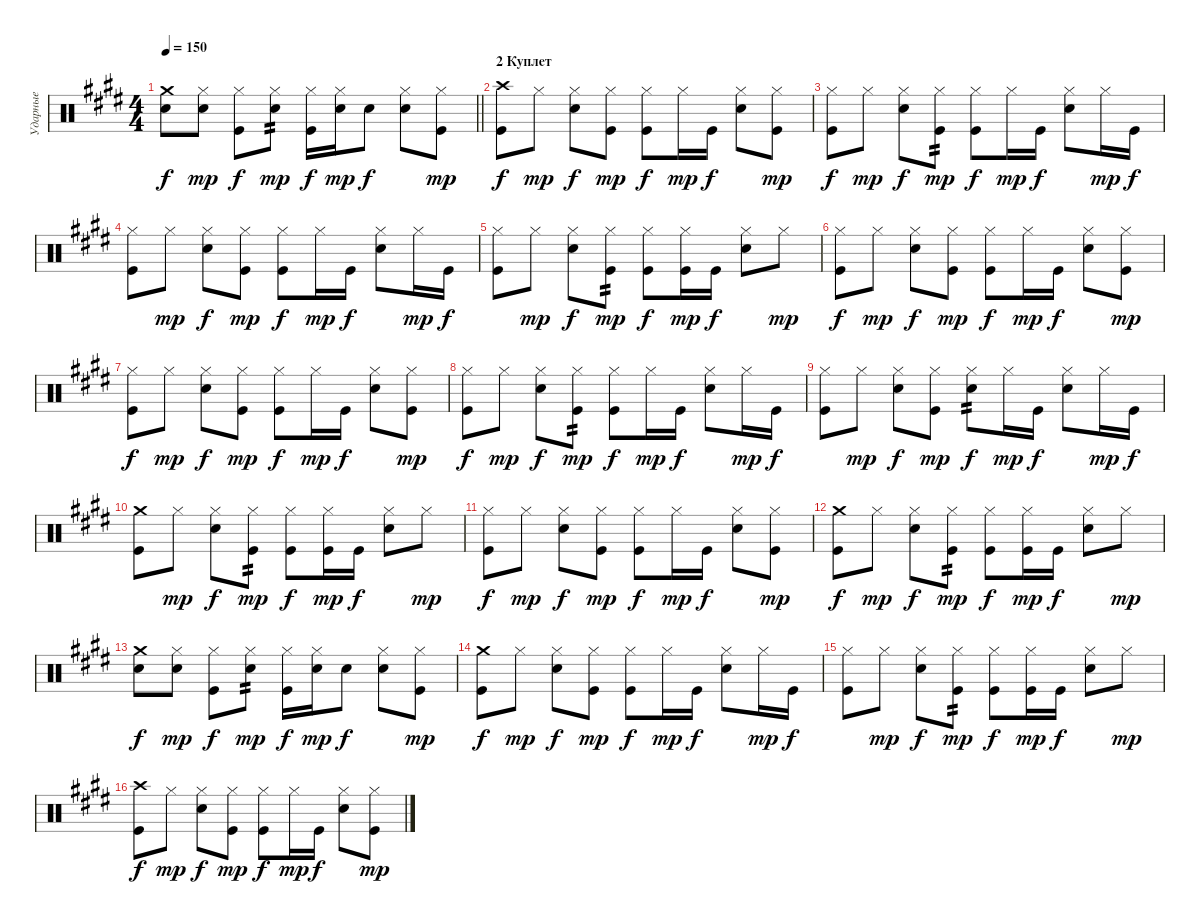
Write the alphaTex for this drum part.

\track ("Ударные" "Ударные") {instrument percussion}
\staff {score}
\articulation defaults
\ts (4 4)
\tempo 150
\clef neutral
\barLineRight lightlight
\ks c#minor
("Crash medium (hit)" "Snare (hit) 2").8{dy f} ("Hi-Hat (closed)" "Snare (hit) 2").8{dy mp} ("Hi-Hat (closed)" "Kick (hit)").8{dy f} ("Hi-Hat (closed)" "Snare (hit) 2").8{tp 2 dy mp} ("Hi-Hat (closed)" "Kick (hit)").16{dy f} ("Hi-Hat (closed)" "Snare (hit) 2").16{dy mp} "Snare (hit) 2".8{dy f} ("Hi-Hat (closed)" "Snare (hit) 2").8 ("Hi-Hat (closed)" "Kick (hit)").8{dy mp} |
\section ("" "2 Куплет")
("Crash high (hit)" "Kick (hit)").8{dy f} "Hi-Hat (closed)".8{dy mp} ("Hi-Hat (closed)" "Snare (hit) 2").8{dy f} ("Hi-Hat (closed)" "Kick (hit)").8{dy mp} ("Hi-Hat (closed)" "Kick (hit)").8{dy f} "Hi-Hat (closed)".16{dy mp} "Kick (hit)".16{dy f} ("Hi-Hat (closed)" "Snare (hit) 2").8 ("Hi-Hat (closed)" "Kick (hit)").8{dy mp} |
("Hi-Hat (closed)" "Kick (hit)").8{dy f} "Hi-Hat (closed)".8{dy mp} ("Hi-Hat (closed)" "Snare (hit) 2").8{dy f} ("Hi-Hat (closed)" "Kick (hit)").8{tp 2 dy mp} ("Hi-Hat (closed)" "Kick (hit)").8{dy f} "Hi-Hat (closed)".16{dy mp} "Kick (hit)".16{dy f} ("Hi-Hat (closed)" "Snare (hit) 2").8 "Hi-Hat (closed)".16{dy mp} "Kick (hit)".16{dy f} |
("Hi-Hat (closed)" "Kick (hit)").8 "Hi-Hat (closed)".8{dy mp} ("Hi-Hat (closed)" "Snare (hit) 2").8{dy f} ("Hi-Hat (closed)" "Kick (hit)").8{dy mp} ("Hi-Hat (closed)" "Kick (hit)").8{dy f} "Hi-Hat (closed)".16{dy mp} "Kick (hit)".16{dy f} ("Hi-Hat (closed)" "Snare (hit) 2").8 "Hi-Hat (closed)".16{dy mp} "Kick (hit)".16{dy f} |
("Hi-Hat (closed)" "Kick (hit)").8 "Hi-Hat (closed)".8{dy mp} ("Hi-Hat (closed)" "Snare (hit) 2").8{dy f} ("Hi-Hat (closed)" "Kick (hit)").8{tp 2 dy mp} ("Hi-Hat (closed)" "Kick (hit)").8{dy f} ("Hi-Hat (closed)" "Kick (hit)").16{dy mp} "Kick (hit)".16{dy f} ("Hi-Hat (closed)" "Snare (hit) 2").8 "Hi-Hat (closed)".8{dy mp} |
("Hi-Hat (closed)" "Kick (hit)").8{dy f} "Hi-Hat (closed)".8{dy mp} ("Hi-Hat (closed)" "Snare (hit) 2").8{dy f} ("Hi-Hat (closed)" "Kick (hit)").8{dy mp} ("Hi-Hat (closed)" "Kick (hit)").8{dy f} "Hi-Hat (closed)".16{dy mp} "Kick (hit)".16{dy f} ("Hi-Hat (closed)" "Snare (hit) 2").8 ("Hi-Hat (closed)" "Kick (hit)").8{dy mp} |
("Hi-Hat (closed)" "Kick (hit)").8{dy f} "Hi-Hat (closed)".8{dy mp} ("Hi-Hat (closed)" "Snare (hit) 2").8{dy f} ("Hi-Hat (closed)" "Kick (hit)").8{dy mp} ("Hi-Hat (closed)" "Kick (hit)").8{dy f} "Hi-Hat (closed)".16{dy mp} "Kick (hit)".16{dy f} ("Hi-Hat (closed)" "Snare (hit) 2").8 ("Hi-Hat (closed)" "Kick (hit)").8{dy mp} |
("Hi-Hat (closed)" "Kick (hit)").8{dy f} "Hi-Hat (closed)".8{dy mp} ("Hi-Hat (closed)" "Snare (hit) 2").8{dy f} ("Hi-Hat (closed)" "Kick (hit)").8{tp 2 dy mp} ("Hi-Hat (closed)" "Kick (hit)").8{dy f} "Hi-Hat (closed)".16{dy mp} "Kick (hit)".16{dy f} ("Hi-Hat (closed)" "Snare (hit) 2").8 "Hi-Hat (closed)".16{dy mp} "Kick (hit)".16{dy f} |
("Hi-Hat (closed)" "Kick (hit)").8 "Hi-Hat (closed)".8{dy mp} ("Hi-Hat (closed)" "Snare (hit) 2").8{dy f} ("Hi-Hat (closed)" "Kick (hit)").8{dy mp} ("Hi-Hat (closed)" "Snare (hit) 2").8{tp 2 dy f} "Hi-Hat (closed)".16{dy mp} "Kick (hit)".16{dy f} ("Hi-Hat (closed)" "Snare (hit) 2").8 "Hi-Hat (closed)".16{dy mp} "Kick (hit)".16{dy f} |
("Crash medium (hit)" "Kick (hit)").8 "Hi-Hat (closed)".8{dy mp} ("Hi-Hat (closed)" "Snare (hit) 2").8{dy f} ("Hi-Hat (closed)" "Kick (hit)").8{tp 2 dy mp} ("Hi-Hat (closed)" "Kick (hit)").8{dy f} ("Hi-Hat (closed)" "Kick (hit)").16{dy mp} "Kick (hit)".16{dy f} ("Hi-Hat (closed)" "Snare (hit) 2").8 "Hi-Hat (closed)".8{dy mp} |
("Hi-Hat (closed)" "Kick (hit)").8{dy f} "Hi-Hat (closed)".8{dy mp} ("Hi-Hat (closed)" "Snare (hit) 2").8{dy f} ("Hi-Hat (closed)" "Kick (hit)").8{dy mp} ("Hi-Hat (closed)" "Kick (hit)").8{dy f} "Hi-Hat (closed)".16{dy mp} "Kick (hit)".16{dy f} ("Hi-Hat (closed)" "Snare (hit) 2").8 ("Hi-Hat (closed)" "Kick (hit)").8{dy mp} |
("Crash medium (hit)" "Kick (hit)").8{dy f} "Hi-Hat (closed)".8{dy mp} ("Hi-Hat (closed)" "Snare (hit) 2").8{dy f} ("Hi-Hat (closed)" "Kick (hit)").8{tp 2 dy mp} ("Hi-Hat (closed)" "Kick (hit)").8{dy f} ("Hi-Hat (closed)" "Kick (hit)").16{dy mp} "Kick (hit)".16{dy f} ("Hi-Hat (closed)" "Snare (hit) 2").8 "Hi-Hat (closed)".8{dy mp} |
("Crash medium (hit)" "Snare (hit) 2").8{dy f} ("Hi-Hat (closed)" "Snare (hit) 2").8{dy mp} ("Hi-Hat (closed)" "Kick (hit)").8{dy f} ("Hi-Hat (closed)" "Snare (hit) 2").8{tp 2 dy mp} ("Hi-Hat (closed)" "Kick (hit)").16{dy f} ("Hi-Hat (closed)" "Snare (hit) 2").16{dy mp} "Snare (hit) 2".8{dy f} ("Hi-Hat (closed)" "Snare (hit) 2").8 ("Hi-Hat (closed)" "Kick (hit)").8{dy mp} |
("Crash medium (hit)" "Kick (hit)").8{dy f} "Hi-Hat (closed)".8{dy mp} ("Hi-Hat (closed)" "Snare (hit) 2").8{dy f} ("Hi-Hat (closed)" "Kick (hit)").8{dy mp} ("Hi-Hat (closed)" "Kick (hit)").8{dy f} "Hi-Hat (closed)".16{dy mp} "Kick (hit)".16{dy f} ("Hi-Hat (closed)" "Snare (hit) 2").8 "Hi-Hat (closed)".16{dy mp} "Kick (hit)".16{dy f} |
("Hi-Hat (closed)" "Kick (hit)").8 "Hi-Hat (closed)".8{dy mp} ("Hi-Hat (closed)" "Snare (hit) 2").8{dy f} ("Hi-Hat (closed)" "Kick (hit)").8{tp 2 dy mp} ("Hi-Hat (closed)" "Kick (hit)").8{dy f} ("Hi-Hat (closed)" "Kick (hit)").16{dy mp} "Kick (hit)".16{dy f} ("Hi-Hat (closed)" "Snare (hit) 2").8 "Hi-Hat (closed)".8{dy mp} |
("Crash high (hit)" "Kick (hit)").8{dy f} "Hi-Hat (closed)".8{dy mp} ("Hi-Hat (closed)" "Snare (hit) 2").8{dy f} ("Hi-Hat (closed)" "Kick (hit)").8{dy mp} ("Hi-Hat (closed)" "Kick (hit)").8{dy f} "Hi-Hat (closed)".16{dy mp} "Kick (hit)".16{dy f} ("Hi-Hat (closed)" "Snare (hit) 2").8 ("Hi-Hat (closed)" "Kick (hit)").8{dy mp}
